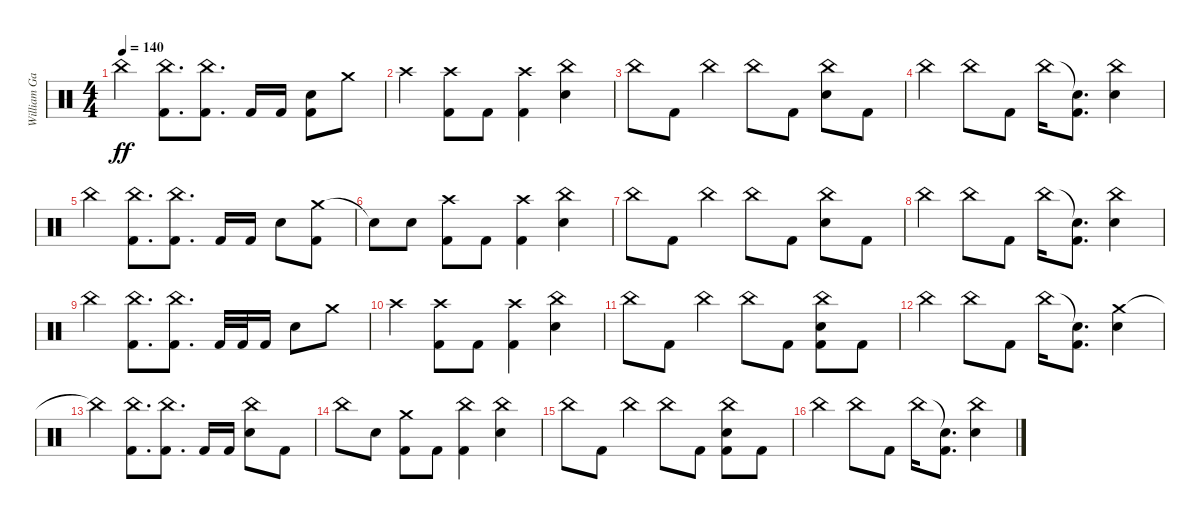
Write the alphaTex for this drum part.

\track ("William Gates (Drums)" "William Ga") {instrument percussion}
\staff {score}
\articulation defaults
\ts (4 4)
\tempo 140
\clef neutral
\ks c "China (hit)".4{dy ff}
("China (hit)" "Kick (hit) 2").8{d} ("China (hit)" "Kick (hit) 2").8{d} "Kick (hit) 2".16 "Kick (hit) 2".16 ("Snare (hit) 2" "Kick (hit) 2").8 "Crash medium (hit)".8 |
"Crash high (hit)".4 ("Crash high (hit)" "Kick (hit) 2").8 "Kick (hit) 2".8 ("Crash high (hit)" "Kick (hit) 2").4 ("China (hit)" "Snare (hit) 2").4 |
"China (hit)".8 "Kick (hit) 2".8 "China (hit)".4 "China (hit)".8 "Kick (hit) 2".8 ("China (hit)" "Snare (hit) 2").8 "Kick (hit) 2".8 |
"China (hit)".4 "China (hit)".8 "Kick (hit) 2".8 "China (hit)".16 ("Snare (hit)"{t} "Kick (hit) 2").8{d} ("China (hit)" "Snare (hit) 2").4 |
"China (hit)".4 ("China (hit)" "Kick (hit) 2").8{d} ("China (hit)" "Kick (hit) 2").8{d} "Kick (hit) 2".16 "Kick (hit) 2".16 "Snare (hit) 2".8 ("Crash medium (hit)" "Kick (hit) 2").8 |
"Snare (hit)"{t}.8 "Snare (hit) 2".8 ("Crash high (hit)" "Kick (hit) 2").8 "Kick (hit) 2".8 ("Crash high (hit)" "Kick (hit) 2").4 ("China (hit)" "Snare (hit) 2").4 |
"China (hit)".8 "Kick (hit) 2".8 "China (hit)".4 "China (hit)".8 "Kick (hit) 2".8 ("China (hit)" "Snare (hit) 2").8 "Kick (hit) 2".8 |
"China (hit)".4 "China (hit)".8 "Kick (hit) 2".8 "China (hit)".16 ("Snare (hit)"{t} "Kick (hit) 2").8{d} ("China (hit)" "Snare (hit) 2").4 |
"China (hit)".4 ("China (hit)" "Kick (hit) 2").8{d} ("China (hit)" "Kick (hit) 2").8{d} "Kick (hit) 2".32 "Kick (hit) 2".32 "Kick (hit) 2".16 "Snare (hit) 2".8 "Crash medium (hit)".8 |
"Crash high (hit)".4 ("Crash high (hit)" "Kick (hit) 2").8 "Kick (hit) 2".8 ("Crash high (hit)" "Kick (hit) 2").4 ("China (hit)" "Snare (hit) 2").4 |
"China (hit)".8 "Kick (hit) 2".8 "China (hit)".4 "China (hit)".8 "Kick (hit) 2".8 ("China (hit)" "Snare (hit) 2" "Kick (hit) 2").8 "Kick (hit) 2".8 |
"China (hit)".4 "China (hit)".8 "Kick (hit) 2".8 "China (hit)".16 ("Snare (hit)"{t} "Kick (hit) 2").8{d} ("Crash medium (hit)" "Snare (hit) 2").4 |
"China (hit)"{t}.4 ("China (hit)" "Kick (hit) 2").8{d} ("China (hit)" "Kick (hit) 2").8{d} "Kick (hit) 2".16 "Kick (hit) 2".16 ("China (hit)" "Snare (hit) 2").8 "Kick (hit) 2".8 |
"China (hit)".8 "Snare (hit) 2".8 ("Crash medium (hit)" "Kick (hit) 2").8 "Kick (hit) 2".8 ("China (hit)" "Kick (hit) 2").4 ("China (hit)" "Snare (hit) 2").4 |
"China (hit)".8 "Kick (hit) 2".8 "China (hit)".4 "China (hit)".8 "Kick (hit) 2".8 ("China (hit)" "Snare (hit) 2" "Kick (hit) 2").8 "Kick (hit) 2".8 |
"China (hit)".4 "China (hit)".8 "Kick (hit) 2".8 "China (hit)".16 ("Snare (hit)"{t} "Kick (hit) 2").8{d} ("China (hit)" "Snare (hit) 2").4
